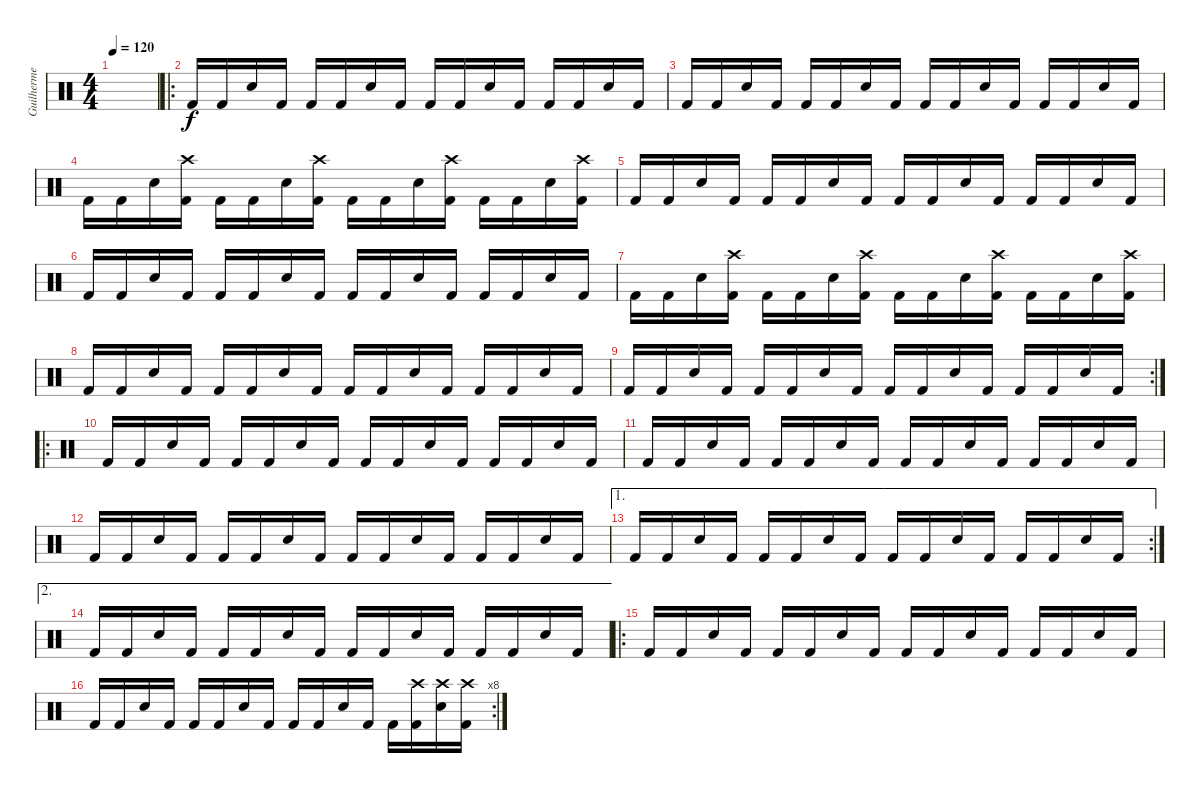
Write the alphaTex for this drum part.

\track ("Guilherme" "Guilherme") {instrument percussion}
\staff {score}
\articulation defaults
\ts (4 4)
\tempo 120
\clef neutral
\ks c
|
\ro "Kick (hit) 2".16 "Kick (hit) 2".16 "Snare (hit) 2".16 "Kick (hit) 2".16 "Kick (hit) 2".16 "Kick (hit) 2".16 "Snare (hit) 2".16 "Kick (hit) 2".16 "Kick (hit) 2".16 "Kick (hit) 2".16 "Snare (hit) 2".16 "Kick (hit) 2".16 "Kick (hit) 2".16 "Kick (hit) 2".16 "Snare (hit) 2".16 "Kick (hit) 2".16
|
"Kick (hit) 2".16 "Kick (hit) 2".16 "Snare (hit) 2".16 "Kick (hit) 2".16 "Kick (hit) 2".16 "Kick (hit) 2".16 "Snare (hit) 2".16 "Kick (hit) 2".16 "Kick (hit) 2".16 "Kick (hit) 2".16 "Snare (hit) 2".16 "Kick (hit) 2".16 "Kick (hit) 2".16 "Kick (hit) 2".16 "Snare (hit) 2".16 "Kick (hit) 2".16 |
"Kick (hit) 2".16 "Kick (hit) 2".16 "Snare (hit) 2".16 ("Crash high (hit)" "Kick (hit) 2").16 "Kick (hit) 2".16 "Kick (hit) 2".16 "Snare (hit) 2".16 ("Crash high (hit)" "Kick (hit) 2").16 "Kick (hit) 2".16 "Kick (hit) 2".16 "Snare (hit) 2".16 ("Crash high (hit)" "Kick (hit) 2").16 "Kick (hit) 2".16 "Kick (hit) 2".16 "Snare (hit) 2".16 ("Crash high (hit)" "Kick (hit) 2").16 |
"Kick (hit) 2".16 "Kick (hit) 2".16 "Snare (hit) 2".16 "Kick (hit) 2".16 "Kick (hit) 2".16 "Kick (hit) 2".16 "Snare (hit) 2".16 "Kick (hit) 2".16 "Kick (hit) 2".16 "Kick (hit) 2".16 "Snare (hit) 2".16 "Kick (hit) 2".16 "Kick (hit) 2".16 "Kick (hit) 2".16 "Snare (hit) 2".16 "Kick (hit) 2".16 |
"Kick (hit) 2".16 "Kick (hit) 2".16 "Snare (hit) 2".16 "Kick (hit) 2".16 "Kick (hit) 2".16 "Kick (hit) 2".16 "Snare (hit) 2".16 "Kick (hit) 2".16 "Kick (hit) 2".16 "Kick (hit) 2".16 "Snare (hit) 2".16 "Kick (hit) 2".16 "Kick (hit) 2".16 "Kick (hit) 2".16 "Snare (hit) 2".16 "Kick (hit) 2".16 |
"Kick (hit) 2".16 "Kick (hit) 2".16 "Snare (hit) 2".16 ("Crash high (hit)" "Kick (hit) 2").16 "Kick (hit) 2".16 "Kick (hit) 2".16 "Snare (hit) 2".16 ("Crash high (hit)" "Kick (hit) 2").16 "Kick (hit) 2".16 "Kick (hit) 2".16 "Snare (hit) 2".16 ("Crash high (hit)" "Kick (hit) 2").16 "Kick (hit) 2".16 "Kick (hit) 2".16 "Snare (hit) 2".16 ("Crash high (hit)" "Kick (hit) 2").16 |
"Kick (hit) 2".16 "Kick (hit) 2".16 "Snare (hit) 2".16 "Kick (hit) 2".16 "Kick (hit) 2".16 "Kick (hit) 2".16 "Snare (hit) 2".16 "Kick (hit) 2".16 "Kick (hit) 2".16 "Kick (hit) 2".16 "Snare (hit) 2".16 "Kick (hit) 2".16 "Kick (hit) 2".16 "Kick (hit) 2".16 "Snare (hit) 2".16 "Kick (hit) 2".16 |
\rc 2 "Kick (hit) 2".16 "Kick (hit) 2".16 "Snare (hit) 2".16 "Kick (hit) 2".16 "Kick (hit) 2".16 "Kick (hit) 2".16 "Snare (hit) 2".16 "Kick (hit) 2".16 "Kick (hit) 2".16 "Kick (hit) 2".16 "Snare (hit) 2".16 "Kick (hit) 2".16 "Kick (hit) 2".16 "Kick (hit) 2".16 "Snare (hit) 2".16 "Kick (hit) 2".16
|
\ro "Kick (hit) 2".16 "Kick (hit) 2".16 "Snare (hit) 2".16 "Kick (hit) 2".16 "Kick (hit) 2".16 "Kick (hit) 2".16 "Snare (hit) 2".16 "Kick (hit) 2".16 "Kick (hit) 2".16 "Kick (hit) 2".16 "Snare (hit) 2".16 "Kick (hit) 2".16 "Kick (hit) 2".16 "Kick (hit) 2".16 "Snare (hit) 2".16 "Kick (hit) 2".16
|
"Kick (hit) 2".16 "Kick (hit) 2".16 "Snare (hit) 2".16 "Kick (hit) 2".16 "Kick (hit) 2".16 "Kick (hit) 2".16 "Snare (hit) 2".16 "Kick (hit) 2".16 "Kick (hit) 2".16 "Kick (hit) 2".16 "Snare (hit) 2".16 "Kick (hit) 2".16 "Kick (hit) 2".16 "Kick (hit) 2".16 "Snare (hit) 2".16 "Kick (hit) 2".16 |
"Kick (hit) 2".16 "Kick (hit) 2".16 "Snare (hit) 2".16 "Kick (hit) 2".16 "Kick (hit) 2".16 "Kick (hit) 2".16 "Snare (hit) 2".16 "Kick (hit) 2".16 "Kick (hit) 2".16 "Kick (hit) 2".16 "Snare (hit) 2".16 "Kick (hit) 2".16 "Kick (hit) 2".16 "Kick (hit) 2".16 "Snare (hit) 2".16 "Kick (hit) 2".16 |
\ae 1
\rc 2 "Kick (hit) 2".16 "Kick (hit) 2".16 "Snare (hit) 2".16 "Kick (hit) 2".16 "Kick (hit) 2".16 "Kick (hit) 2".16 "Snare (hit) 2".16 "Kick (hit) 2".16 "Kick (hit) 2".16 "Kick (hit) 2".16 "Snare (hit) 2".16 "Kick (hit) 2".16 "Kick (hit) 2".16 "Kick (hit) 2".16 "Snare (hit) 2".16 "Kick (hit) 2".16
|
\ae 2 "Kick (hit) 2".16 "Kick (hit) 2".16 "Snare (hit) 2".16 "Kick (hit) 2".16 "Kick (hit) 2".16 "Kick (hit) 2".16 "Snare (hit) 2".16 "Kick (hit) 2".16 "Kick (hit) 2".16 "Kick (hit) 2".16 "Snare (hit) 2".16 "Kick (hit) 2".16 "Kick (hit) 2".16 "Kick (hit) 2".16 "Snare (hit) 2".16 "Kick (hit) 2".16
|
\ro "Kick (hit) 2".16 "Kick (hit) 2".16 "Snare (hit) 2".16 "Kick (hit) 2".16 "Kick (hit) 2".16 "Kick (hit) 2".16 "Snare (hit) 2".16 "Kick (hit) 2".16 "Kick (hit) 2".16 "Kick (hit) 2".16 "Snare (hit) 2".16 "Kick (hit) 2".16 "Kick (hit) 2".16 "Kick (hit) 2".16 "Snare (hit) 2".16 "Kick (hit) 2".16
|
\rc 8 "Kick (hit) 2".16 "Kick (hit) 2".16 "Snare (hit) 2".16 "Kick (hit) 2".16 "Kick (hit) 2".16 "Kick (hit) 2".16 "Snare (hit) 2".16 "Kick (hit) 2".16 "Kick (hit) 2".16 "Kick (hit) 2".16 "Snare (hit) 2".16 "Kick (hit) 2".16 "Kick (hit) 2".16
("Crash high (hit)" "Kick (hit) 2").16 ("Crash high (hit)" "Snare (hit) 2").16 ("Crash high (hit)" "Kick (hit) 2").16
